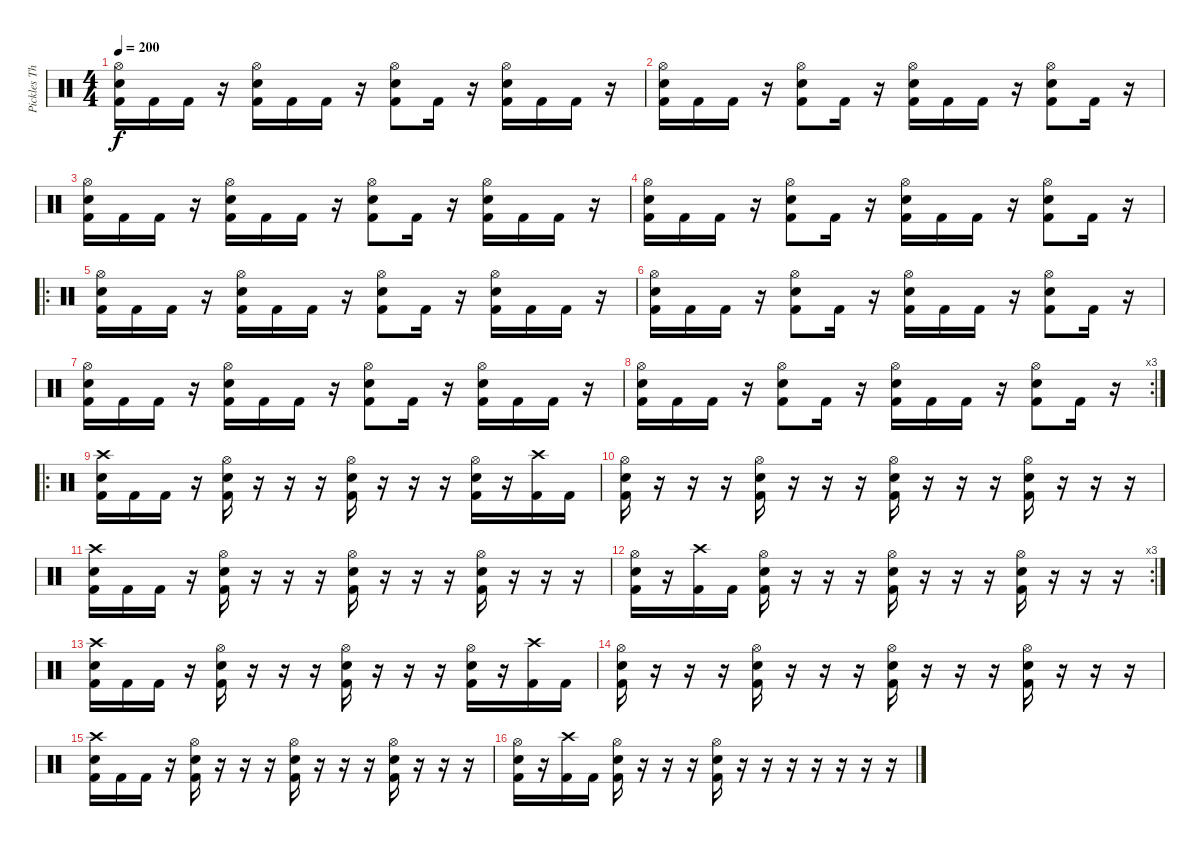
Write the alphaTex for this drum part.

\track ("Pickles The Drummer" "Pickles Th") {instrument percussion}
\staff {score}
\articulation defaults
\ts (4 4)
\tempo 200
\clef neutral
\ks c
("Hi-Hat (open)" "Electric Snare (hit)" "Kick (hit) 2").16{dy f} "Kick (hit) 2".16 "Kick (hit) 2".16 r.16 ("Hi-Hat (open)" "Electric Snare (hit)" "Kick (hit) 2").16 "Kick (hit) 2".16 "Kick (hit) 2".16 r.16 ("Hi-Hat (open)" "Electric Snare (hit)" "Kick (hit) 2").8 "Kick (hit) 2".16 r.16 ("Hi-Hat (open)" "Electric Snare (hit)" "Kick (hit) 2").16 "Kick (hit) 2".16 "Kick (hit) 2".16 r.16 |
("Hi-Hat (open)" "Electric Snare (hit)" "Kick (hit) 2").16 "Kick (hit) 2".16 "Kick (hit) 2".16 r.16 ("Hi-Hat (open)" "Electric Snare (hit)" "Kick (hit) 2").8 "Kick (hit) 2".16 r.16 ("Hi-Hat (open)" "Electric Snare (hit)" "Kick (hit) 2").16 "Kick (hit) 2".16 "Kick (hit) 2".16 r.16 ("Hi-Hat (open)" "Electric Snare (hit)" "Kick (hit) 2").8 "Kick (hit) 2".16 r.16 |
("Hi-Hat (open)" "Electric Snare (hit)" "Kick (hit) 2").16 "Kick (hit) 2".16 "Kick (hit) 2".16 r.16 ("Hi-Hat (open)" "Electric Snare (hit)" "Kick (hit) 2").16 "Kick (hit) 2".16 "Kick (hit) 2".16 r.16 ("Hi-Hat (open)" "Electric Snare (hit)" "Kick (hit) 2").8 "Kick (hit) 2".16 r.16 ("Hi-Hat (open)" "Electric Snare (hit)" "Kick (hit) 2").16 "Kick (hit) 2".16 "Kick (hit) 2".16 r.16 |
("Hi-Hat (open)" "Electric Snare (hit)" "Kick (hit) 2").16 "Kick (hit) 2".16 "Kick (hit) 2".16 r.16 ("Hi-Hat (open)" "Electric Snare (hit)" "Kick (hit) 2").8 "Kick (hit) 2".16 r.16 ("Hi-Hat (open)" "Electric Snare (hit)" "Kick (hit) 2").16 "Kick (hit) 2".16 "Kick (hit) 2".16 r.16 ("Hi-Hat (open)" "Electric Snare (hit)" "Kick (hit) 2").8 "Kick (hit) 2".16 r.16 |
\ro
("Hi-Hat (open)" "Electric Snare (hit)" "Kick (hit) 2").16 "Kick (hit) 2".16 "Kick (hit) 2".16 r.16 ("Hi-Hat (open)" "Electric Snare (hit)" "Kick (hit) 2").16 "Kick (hit) 2".16 "Kick (hit) 2".16 r.16 ("Hi-Hat (open)" "Electric Snare (hit)" "Kick (hit) 2").8 "Kick (hit) 2".16 r.16 ("Hi-Hat (open)" "Electric Snare (hit)" "Kick (hit) 2").16 "Kick (hit) 2".16 "Kick (hit) 2".16 r.16 |
("Hi-Hat (open)" "Electric Snare (hit)" "Kick (hit) 2").16 "Kick (hit) 2".16 "Kick (hit) 2".16 r.16 ("Hi-Hat (open)" "Electric Snare (hit)" "Kick (hit) 2").8 "Kick (hit) 2".16 r.16 ("Hi-Hat (open)" "Electric Snare (hit)" "Kick (hit) 2").16 "Kick (hit) 2".16 "Kick (hit) 2".16 r.16 ("Hi-Hat (open)" "Electric Snare (hit)" "Kick (hit) 2").8 "Kick (hit) 2".16 r.16 |
("Hi-Hat (open)" "Electric Snare (hit)" "Kick (hit) 2").16 "Kick (hit) 2".16 "Kick (hit) 2".16 r.16 ("Hi-Hat (open)" "Electric Snare (hit)" "Kick (hit) 2").16 "Kick (hit) 2".16 "Kick (hit) 2".16 r.16 ("Hi-Hat (open)" "Electric Snare (hit)" "Kick (hit) 2").8 "Kick (hit) 2".16 r.16 ("Hi-Hat (open)" "Electric Snare (hit)" "Kick (hit) 2").16 "Kick (hit) 2".16 "Kick (hit) 2".16 r.16 |
\rc 3
("Hi-Hat (open)" "Electric Snare (hit)" "Kick (hit) 2").16 "Kick (hit) 2".16 "Kick (hit) 2".16 r.16 ("Hi-Hat (open)" "Electric Snare (hit)" "Kick (hit) 2").8 "Kick (hit) 2".16 r.16 ("Hi-Hat (open)" "Electric Snare (hit)" "Kick (hit) 2").16 "Kick (hit) 2".16 "Kick (hit) 2".16 r.16 ("Hi-Hat (open)" "Electric Snare (hit)" "Kick (hit) 2").8 "Kick (hit) 2".16 r.16 |
\ro
("Crash high (hit)" "Electric Snare (hit)" "Kick (hit) 2").16 "Kick (hit) 2".16 "Kick (hit) 2".16 r.16 ("Hi-Hat (open)" "Electric Snare (hit)" "Kick (hit) 2").16 r.16 r.16 r.16 ("Hi-Hat (open)" "Electric Snare (hit)" "Kick (hit) 2").16 r.16 r.16 r.16 ("Hi-Hat (open)" "Electric Snare (hit)" "Kick (hit) 2").16 r.16 ("Crash high (hit)" "Kick (hit) 2").16 "Kick (hit) 2".16 |
("Hi-Hat (open)" "Electric Snare (hit)" "Kick (hit) 2").16 r.16 r.16 r.16 ("Hi-Hat (open)" "Electric Snare (hit)" "Kick (hit) 2").16 r.16 r.16 r.16 ("Hi-Hat (open)" "Electric Snare (hit)" "Kick (hit) 2").16 r.16 r.16 r.16 ("Hi-Hat (open)" "Electric Snare (hit)" "Kick (hit) 2").16 r.16 r.16 r.16 |
("Crash high (hit)" "Electric Snare (hit)" "Kick (hit) 2").16 "Kick (hit) 2".16 "Kick (hit) 2".16 r.16 ("Hi-Hat (open)" "Electric Snare (hit)" "Kick (hit) 2").16 r.16 r.16 r.16 ("Hi-Hat (open)" "Electric Snare (hit)" "Kick (hit) 2").16 r.16 r.16 r.16 ("Hi-Hat (open)" "Electric Snare (hit)" "Kick (hit) 2").16 r.16 r.16 r.16 |
\rc 3
("Hi-Hat (open)" "Electric Snare (hit)" "Kick (hit) 2").16 r.16 ("Crash high (hit)" "Kick (hit) 2").16 "Kick (hit) 2".16 ("Hi-Hat (open)" "Electric Snare (hit)" "Kick (hit) 2").16 r.16 r.16 r.16 ("Hi-Hat (open)" "Electric Snare (hit)" "Kick (hit) 2").16 r.16 r.16 r.16 ("Hi-Hat (open)" "Electric Snare (hit)" "Kick (hit) 2").16 r.16 r.16 r.16 |
("Crash high (hit)" "Electric Snare (hit)" "Kick (hit) 2").16 "Kick (hit) 2".16 "Kick (hit) 2".16 r.16 ("Hi-Hat (open)" "Electric Snare (hit)" "Kick (hit) 2").16 r.16 r.16 r.16 ("Hi-Hat (open)" "Electric Snare (hit)" "Kick (hit) 2").16 r.16 r.16 r.16 ("Hi-Hat (open)" "Electric Snare (hit)" "Kick (hit) 2").16 r.16 ("Crash high (hit)" "Kick (hit) 2").16 "Kick (hit) 2".16 |
("Hi-Hat (open)" "Electric Snare (hit)" "Kick (hit) 2").16 r.16 r.16 r.16 ("Hi-Hat (open)" "Electric Snare (hit)" "Kick (hit) 2").16 r.16 r.16 r.16 ("Hi-Hat (open)" "Electric Snare (hit)" "Kick (hit) 2").16 r.16 r.16 r.16 ("Hi-Hat (open)" "Electric Snare (hit)" "Kick (hit) 2").16 r.16 r.16 r.16 |
("Crash high (hit)" "Electric Snare (hit)" "Kick (hit) 2").16 "Kick (hit) 2".16 "Kick (hit) 2".16 r.16 ("Hi-Hat (open)" "Electric Snare (hit)" "Kick (hit) 2").16 r.16 r.16 r.16 ("Hi-Hat (open)" "Electric Snare (hit)" "Kick (hit) 2").16 r.16 r.16 r.16 ("Hi-Hat (open)" "Electric Snare (hit)" "Kick (hit) 2").16 r.16 r.16 r.16 |
("Hi-Hat (open)" "Electric Snare (hit)" "Kick (hit) 2").16 r.16 ("Crash high (hit)" "Kick (hit) 2").16 "Kick (hit) 2".16 ("Hi-Hat (open)" "Electric Snare (hit)" "Kick (hit) 2").16 r.16 r.16 r.16 ("Hi-Hat (open)" "Electric Snare (hit)" "Kick (hit) 2").16 r.16 r.16 r.16 r.16 r.16 r.16 r.16
